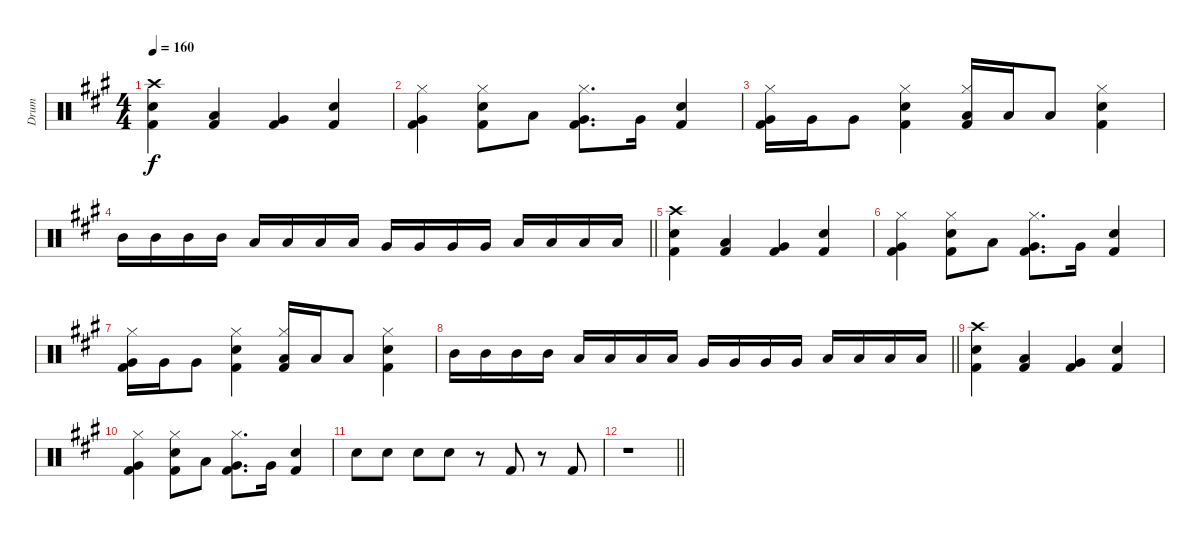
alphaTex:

\track ("Drum" "Drum") {instrument percussion}
\staff {score}
\articulation defaults
\ts (4 4)
\tempo 160
\clef neutral
\ks a
("Snare (hit) 2" "Kick (hit) 2" "Crash high (hit)").4{dy f} ("Kick (hit) 2" "Low Tom (hit)").4 ("Kick (hit) 2" "Very Low Tom (hit)").4 ("Snare (hit) 2" "Kick (hit) 2").4 |
("Hi-Hat (closed)" "Kick (hit) 2" "Very Low Tom (hit)").4 ("Hi-Hat (closed)" "Snare (hit) 2" "Kick (hit) 2").8 "Low Tom (hit)".8 ("Hi-Hat (closed)" "Kick (hit) 2" "Very Low Tom (hit)").8{d} "Very Low Tom (hit)".16 ("Snare (hit) 2" "Kick (hit) 2").4 |
("Hi-Hat (closed)" "Kick (hit) 2" "Very Low Tom (hit)").16 "Very Low Tom (hit)".16 "Very Low Tom (hit)".8 ("Hi-Hat (closed)" "Snare (hit) 2" "Kick (hit) 2").4 ("Hi-Hat (closed)" "Kick (hit) 2" "Low Floor Tom (hit)").16 "Low Floor Tom (hit)".16 "Low Floor Tom (hit)".8 ("Hi-Hat (closed)" "Snare (hit) 2" "Kick (hit) 2").4 |
\barLineRight lightlight "Mid Tom (hit)".16 "Mid Tom (hit)".16 "Mid Tom (hit)".16 "Mid Tom (hit)".16 "Low Tom (hit)".16 "Low Tom (hit)".16 "Low Tom (hit)".16 "Low Tom (hit)".16 "Very Low Tom (hit)".16 "Very Low Tom (hit)".16 "Very Low Tom (hit)".16 "Very Low Tom (hit)".16 "Low Floor Tom (hit)".16 "Low Floor Tom (hit)".16 "Low Floor Tom (hit)".16 "Low Floor Tom (hit)".16
|
("Snare (hit) 2" "Kick (hit) 2" "Crash high (hit)").4 ("Kick (hit) 2" "Low Tom (hit)").4 ("Kick (hit) 2" "Very Low Tom (hit)").4 ("Snare (hit) 2" "Kick (hit) 2").4 |
("Hi-Hat (closed)" "Kick (hit) 2" "Very Low Tom (hit)").4 ("Hi-Hat (closed)" "Snare (hit) 2" "Kick (hit) 2").8 "Low Tom (hit)".8 ("Hi-Hat (closed)" "Kick (hit) 2" "Very Low Tom (hit)").8{d} "Very Low Tom (hit)".16 ("Snare (hit) 2" "Kick (hit) 2").4 |
("Hi-Hat (closed)" "Kick (hit) 2" "Very Low Tom (hit)").16 "Very Low Tom (hit)".16 "Very Low Tom (hit)".8 ("Hi-Hat (closed)" "Snare (hit) 2" "Kick (hit) 2").4 ("Hi-Hat (closed)" "Kick (hit) 2" "Low Floor Tom (hit)").16 "Low Floor Tom (hit)".16 "Low Floor Tom (hit)".8 ("Hi-Hat (closed)" "Snare (hit) 2" "Kick (hit) 2").4 |
\barLineRight lightlight "Mid Tom (hit)".16 "Mid Tom (hit)".16 "Mid Tom (hit)".16 "Mid Tom (hit)".16 "Low Tom (hit)".16 "Low Tom (hit)".16 "Low Tom (hit)".16 "Low Tom (hit)".16 "Very Low Tom (hit)".16 "Very Low Tom (hit)".16 "Very Low Tom (hit)".16 "Very Low Tom (hit)".16 "Low Floor Tom (hit)".16 "Low Floor Tom (hit)".16 "Low Floor Tom (hit)".16 "Low Floor Tom (hit)".16
|
("Snare (hit) 2" "Kick (hit) 2" "Crash high (hit)").4 ("Kick (hit) 2" "Low Tom (hit)").4 ("Kick (hit) 2" "Very Low Tom (hit)").4 ("Snare (hit) 2" "Kick (hit) 2").4 |
("Hi-Hat (closed)" "Kick (hit) 2" "Very Low Tom (hit)").4 ("Hi-Hat (closed)" "Snare (hit) 2" "Kick (hit) 2").8 "Low Tom (hit)".8 ("Hi-Hat (closed)" "Kick (hit) 2" "Very Low Tom (hit)").8{d} "Very Low Tom (hit)".16 ("Snare (hit) 2" "Kick (hit) 2").4 |
"Snare (hit) 2".8 "Snare (hit) 2".8 "Snare (hit) 2".8 "Snare (hit) 2".8 r.8 "Kick (hit) 2".8 r.8 "Kick (hit) 2".8 |
\barLineRight lightlight
r.1
